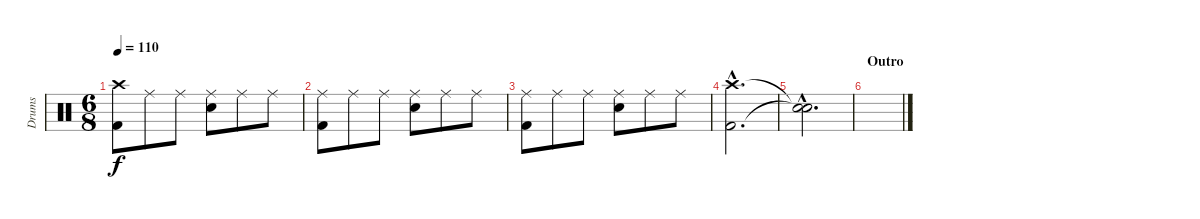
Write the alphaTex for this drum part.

\track ("Drums" "Drums") {instrument percussion}
\staff {score}
\articulation defaults
\ts (6 8)
\tempo 110
\clef neutral
\ks c
("Crash high (hit)" "Kick (hit) 2").8{dy f} "Ride (middle)".8 "Ride (middle)".8 ("Ride (middle)" "Electric Snare (hit)").8 "Ride (middle)".8 "Ride (middle)".8 |
("Ride (middle)" "Kick (hit) 2").8 "Ride (middle)".8 "Ride (middle)".8 ("Ride (middle)" "Electric Snare (hit)").8 "Ride (middle)".8 "Ride (middle)".8 |
("Ride (middle)" "Kick (hit) 2").8 "Ride (middle)".8 "Ride (middle)".8 ("Ride (middle)" "Electric Snare (hit)").8 "Ride (middle)".8 "Ride (middle)".8 |
("Crash high (hit)"{hac} "Kick (hit) 2"{hac}).2{d} |
("Snare (hit)"{hac t} "Snare (hit)"{hac t}).2{d} |
\section ("" "Outro")
